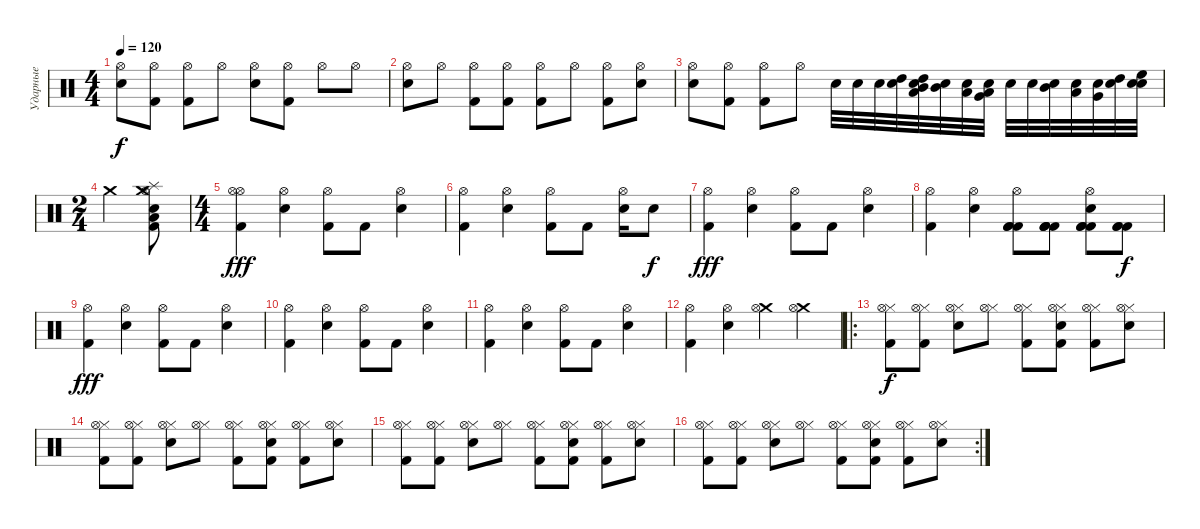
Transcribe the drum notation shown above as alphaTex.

\track ("Ударные" "Ударные") {instrument percussion}
\staff {score}
\articulation defaults
\ts (4 4)
\tempo 120
\clef neutral
\ks c
("Hi-Hat (open)" "Snare (hit) 2").8{dy f} ("Hi-Hat (open)" "Kick (hit) 2").8 ("Hi-Hat (open)" "Kick (hit) 2").8 "Hi-Hat (open)".8 ("Hi-Hat (open)" "Snare (hit) 2").8 ("Hi-Hat (open)" "Kick (hit) 2").8 "Hi-Hat (open)".8 "Hi-Hat (open)".8 |
("Hi-Hat (open)" "Snare (hit) 2").8 "Hi-Hat (open)".8 ("Hi-Hat (open)" "Kick (hit) 2").8 ("Hi-Hat (open)" "Kick (hit) 2").8 ("Hi-Hat (open)" "Kick (hit) 2").8 "Hi-Hat (open)".8 ("Hi-Hat (open)" "Kick (hit) 2").8 ("Hi-Hat (open)" "Snare (hit) 2").8 |
("Hi-Hat (open)" "Snare (hit) 2").8 ("Hi-Hat (open)" "Kick (hit) 2").8 ("Hi-Hat (open)" "Kick (hit) 2").8 "Hi-Hat (open)".8 "Snare (hit) 2".32 "Snare (hit) 2".32 "Snare (hit) 2".32 ("Snare (hit) 2" "High Tom (hit)").32 ("Snare (hit) 2" "High Tom (hit)" "Mid Tom (hit)" "Low Tom (hit)").32 ("Snare (hit) 2" "Mid Tom (hit)").32 ("Snare (hit) 2" "Low Tom (hit)").32 ("Snare (hit) 2" "Very Low Tom (hit)" "Low Floor Tom (hit)").32 "Snare (hit) 2".32 "Snare (hit) 2".32 ("Snare (hit) 2" "Mid Tom (hit)").32 ("Snare (hit) 2" "Low Tom (hit)").32 ("Snare (hit) 2" "Very Low Tom (hit)").32 ("Snare (hit) 2" "High Tom (hit)").32 ("Snare (hit) 2" "Snare (hit) 2" "High Floor Tom (hit)").32 |
\ts (2 4)
"Crash medium (hit)".4 ("Crash medium (hit)" "Kick (hit) 2" "Snare (hit) 2" "Hi-Hat (open)" "Splash (hit)" "Low Tom (hit)").8 |
\ts (4 4)
("Hi-Hat (open)" "Hi-Hat (open)" "Kick (hit) 2").4{dy fff} ("Hi-Hat (open)" "Snare (hit) 2").4 ("Hi-Hat (open)" "Kick (hit) 2").8 "Kick (hit) 2".8 ("Hi-Hat (open)" "Snare (hit) 2").4 |
("Hi-Hat (open)" "Kick (hit) 2").4 ("Hi-Hat (open)" "Snare (hit) 2").4 ("Hi-Hat (open)" "Kick (hit) 2").8 "Kick (hit) 2".8 ("Hi-Hat (open)" "Snare (hit) 2").16 "Snare (hit) 2".8{dy f} |
("Hi-Hat (open)" "Kick (hit) 2").4{dy fff} ("Hi-Hat (open)" "Snare (hit) 2").4 ("Hi-Hat (open)" "Kick (hit) 2").8 "Kick (hit) 2".8 ("Hi-Hat (open)" "Snare (hit) 2").4 |
("Hi-Hat (open)" "Kick (hit) 2").4 ("Hi-Hat (open)" "Snare (hit) 2").4 ("Kick (hit) 2" "Kick (hit) 2" "Hi-Hat (open)" "Kick (hit) 2").8 ("Kick (hit) 2" "Kick (hit) 2" "Kick (hit) 2" "Kick (hit) 2").8 ("Kick (hit) 2" "Kick (hit) 2" "Kick (hit) 2" "Hi-Hat (open)" "Snare (hit) 2").8 ("Kick (hit) 2" "Kick (hit) 2" "Kick (hit) 2").8{dy f} |
("Hi-Hat (open)" "Kick (hit) 2").4{dy fff} ("Hi-Hat (open)" "Snare (hit) 2").4 ("Hi-Hat (open)" "Kick (hit) 2").8 "Kick (hit) 2".8 ("Hi-Hat (open)" "Snare (hit) 2").4 |
("Hi-Hat (open)" "Kick (hit) 2").4 ("Hi-Hat (open)" "Snare (hit) 2").4 ("Hi-Hat (open)" "Kick (hit) 2").8 "Kick (hit) 2".8 ("Hi-Hat (open)" "Snare (hit) 2").4 |
("Hi-Hat (open)" "Kick (hit) 2").4 ("Hi-Hat (open)" "Snare (hit) 2").4 ("Hi-Hat (open)" "Kick (hit) 2").8 "Kick (hit) 2".8 ("Hi-Hat (open)" "Snare (hit) 2").4 |
("Hi-Hat (open)" "Kick (hit) 2").4 ("Hi-Hat (open)" "Snare (hit) 2").4 ("Crash medium (hit)" "Hi-Hat (open)").4 ("Crash medium (hit)" "Hi-Hat (open)").4 |
\ro
("Hi-Hat (closed)" "Kick (hit) 2" "Hi-Hat (open)").8{dy f} ("Hi-Hat (closed)" "Kick (hit) 2" "Hi-Hat (open)").8 ("Hi-Hat (closed)" "Snare (hit) 2" "Hi-Hat (open)").8 ("Hi-Hat (closed)" "Hi-Hat (open)").8 ("Hi-Hat (closed)" "Kick (hit) 2" "Hi-Hat (open)").8 ("Hi-Hat (closed)" "Kick (hit) 2" "Snare (hit) 2" "Hi-Hat (open)").8 ("Hi-Hat (closed)" "Hi-Hat (open)" "Kick (hit) 2").8 ("Hi-Hat (closed)" "Snare (hit) 2" "Hi-Hat (open)").8 |
("Hi-Hat (closed)" "Kick (hit) 2" "Hi-Hat (open)").8 ("Hi-Hat (closed)" "Kick (hit) 2" "Hi-Hat (open)").8 ("Hi-Hat (closed)" "Snare (hit) 2" "Hi-Hat (open)").8 ("Hi-Hat (closed)" "Hi-Hat (open)").8 ("Hi-Hat (closed)" "Kick (hit) 2" "Hi-Hat (open)").8 ("Hi-Hat (closed)" "Kick (hit) 2" "Snare (hit) 2" "Hi-Hat (open)").8 ("Hi-Hat (closed)" "Hi-Hat (open)" "Kick (hit) 2").8 ("Hi-Hat (closed)" "Snare (hit) 2" "Hi-Hat (open)").8 |
("Hi-Hat (closed)" "Kick (hit) 2" "Hi-Hat (open)").8 ("Hi-Hat (closed)" "Kick (hit) 2" "Hi-Hat (open)").8 ("Hi-Hat (closed)" "Snare (hit) 2" "Hi-Hat (open)").8 ("Hi-Hat (closed)" "Hi-Hat (open)").8 ("Hi-Hat (closed)" "Kick (hit) 2" "Hi-Hat (open)").8 ("Hi-Hat (closed)" "Kick (hit) 2" "Snare (hit) 2" "Hi-Hat (open)").8 ("Hi-Hat (closed)" "Hi-Hat (open)" "Kick (hit) 2").8 ("Hi-Hat (closed)" "Snare (hit) 2" "Hi-Hat (open)").8 |
\rc 2
("Hi-Hat (closed)" "Kick (hit) 2" "Hi-Hat (open)").8 ("Hi-Hat (closed)" "Kick (hit) 2" "Hi-Hat (open)").8 ("Hi-Hat (closed)" "Snare (hit) 2" "Hi-Hat (open)").8 ("Hi-Hat (closed)" "Hi-Hat (open)").8 ("Hi-Hat (closed)" "Kick (hit) 2" "Hi-Hat (open)").8 ("Hi-Hat (closed)" "Kick (hit) 2" "Snare (hit) 2" "Hi-Hat (open)").8 ("Hi-Hat (closed)" "Hi-Hat (open)" "Kick (hit) 2").8 ("Hi-Hat (closed)" "Snare (hit) 2" "Hi-Hat (open)").8
